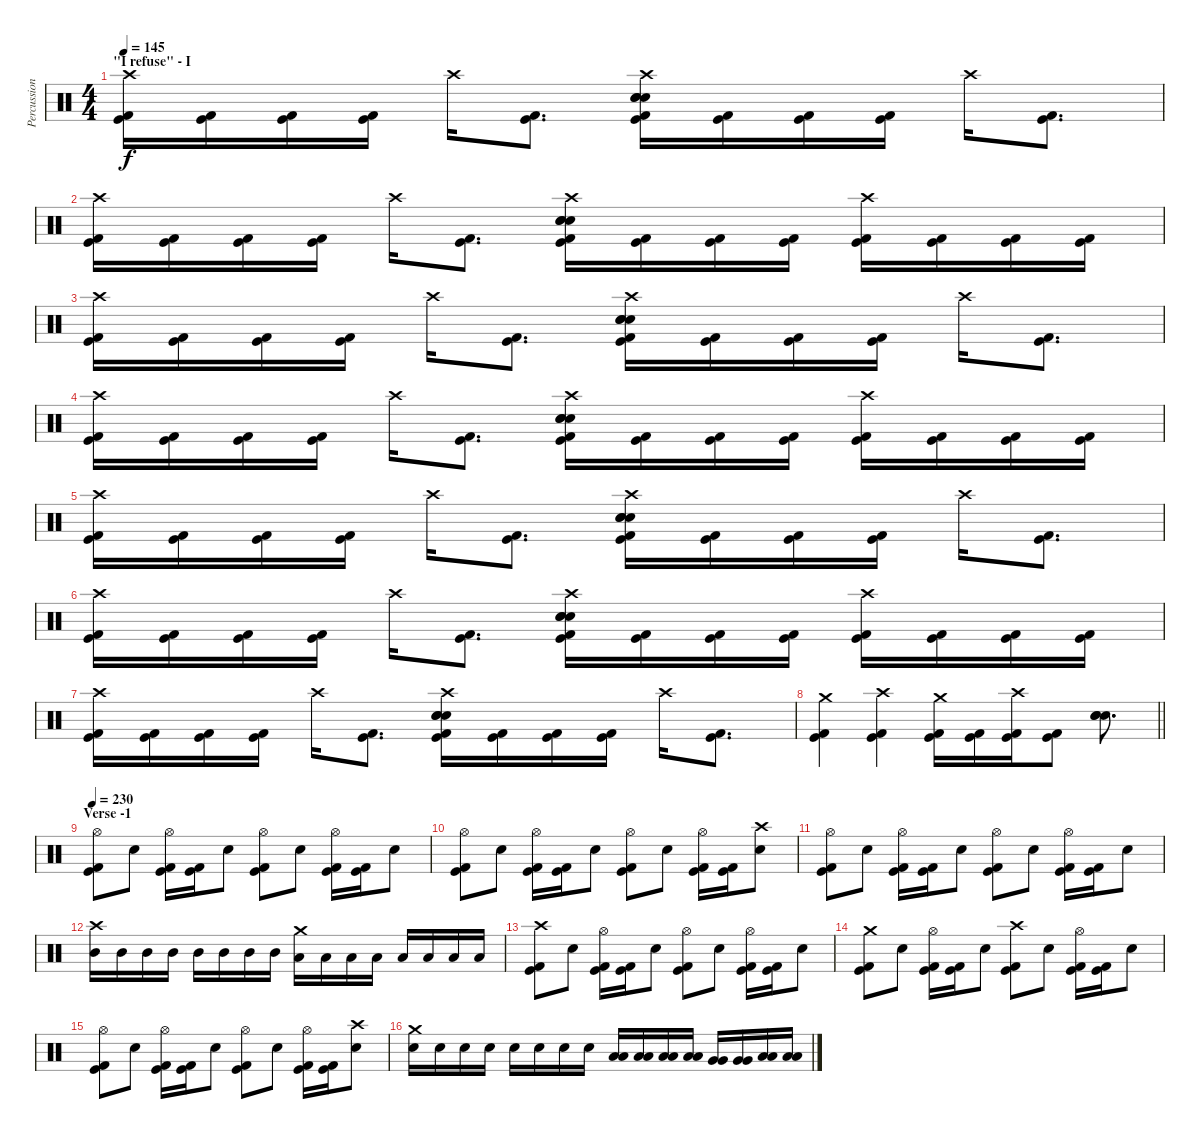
\track ("Percussion" "Percussion") {instrument percussion}
\staff {score}
\articulation defaults
\ts (4 4)
\section ("" "\"I refuse\" - I")
\tempo 145
\clef neutral
\ks c
("Crash high (hit)" "Kick (hit)" "Kick (hit) 2").16{dy f} ("Kick (hit)" "Kick (hit) 2").16 ("Kick (hit)" "Kick (hit) 2").16 ("Kick (hit)" "Kick (hit) 2").16 "Crash high (hit)".16 ("Kick (hit)" "Kick (hit) 2").8{d} ("Crash high (hit)" "Electric Snare (hit)" "Snare (hit) 2" "Snare (hit) 2" "Kick (hit)" "Kick (hit) 2").16 ("Kick (hit)" "Kick (hit) 2").16 ("Kick (hit)" "Kick (hit) 2").16 ("Kick (hit)" "Kick (hit) 2").16 "Crash high (hit)".16 ("Kick (hit)" "Kick (hit) 2").8{d} |
("Crash high (hit)" "Kick (hit)" "Kick (hit) 2").16 ("Kick (hit)" "Kick (hit) 2").16 ("Kick (hit)" "Kick (hit) 2").16 ("Kick (hit)" "Kick (hit) 2").16 "Crash high (hit)".16 ("Kick (hit)" "Kick (hit) 2").8{d} ("Crash high (hit)" "Electric Snare (hit)" "Snare (hit) 2" "Snare (hit) 2" "Kick (hit)" "Kick (hit) 2").16 ("Kick (hit)" "Kick (hit) 2").16 ("Kick (hit)" "Kick (hit) 2").16 ("Kick (hit)" "Kick (hit) 2").16 ("Crash high (hit)" "Kick (hit)" "Kick (hit) 2").16 ("Kick (hit)" "Kick (hit) 2").16 ("Kick (hit)" "Kick (hit) 2").16 ("Kick (hit)" "Kick (hit) 2").16 |
("Crash high (hit)" "Kick (hit)" "Kick (hit) 2").16 ("Kick (hit)" "Kick (hit) 2").16 ("Kick (hit)" "Kick (hit) 2").16 ("Kick (hit)" "Kick (hit) 2").16 "Crash high (hit)".16 ("Kick (hit)" "Kick (hit) 2").8{d} ("Crash high (hit)" "Electric Snare (hit)" "Snare (hit) 2" "Snare (hit) 2" "Kick (hit)" "Kick (hit) 2").16 ("Kick (hit)" "Kick (hit) 2").16 ("Kick (hit)" "Kick (hit) 2").16 ("Kick (hit)" "Kick (hit) 2").16 "Crash high (hit)".16 ("Kick (hit)" "Kick (hit) 2").8{d} |
("Crash high (hit)" "Kick (hit)" "Kick (hit) 2").16 ("Kick (hit)" "Kick (hit) 2").16 ("Kick (hit)" "Kick (hit) 2").16 ("Kick (hit)" "Kick (hit) 2").16 "Crash high (hit)".16 ("Kick (hit)" "Kick (hit) 2").8{d} ("Crash high (hit)" "Electric Snare (hit)" "Snare (hit) 2" "Snare (hit) 2" "Kick (hit)" "Kick (hit) 2").16 ("Kick (hit)" "Kick (hit) 2").16 ("Kick (hit)" "Kick (hit) 2").16 ("Kick (hit)" "Kick (hit) 2").16 ("Crash high (hit)" "Kick (hit)" "Kick (hit) 2").16 ("Kick (hit)" "Kick (hit) 2").16 ("Kick (hit)" "Kick (hit) 2").16 ("Kick (hit)" "Kick (hit) 2").16 |
("Crash high (hit)" "Kick (hit)" "Kick (hit) 2").16 ("Kick (hit)" "Kick (hit) 2").16 ("Kick (hit)" "Kick (hit) 2").16 ("Kick (hit)" "Kick (hit) 2").16 "Crash high (hit)".16 ("Kick (hit)" "Kick (hit) 2").8{d} ("Crash high (hit)" "Electric Snare (hit)" "Snare (hit) 2" "Snare (hit) 2" "Kick (hit)" "Kick (hit) 2").16 ("Kick (hit)" "Kick (hit) 2").16 ("Kick (hit)" "Kick (hit) 2").16 ("Kick (hit)" "Kick (hit) 2").16 "Crash high (hit)".16 ("Kick (hit)" "Kick (hit) 2").8{d} |
("Crash high (hit)" "Kick (hit)" "Kick (hit) 2").16 ("Kick (hit)" "Kick (hit) 2").16 ("Kick (hit)" "Kick (hit) 2").16 ("Kick (hit)" "Kick (hit) 2").16 "Crash high (hit)".16 ("Kick (hit)" "Kick (hit) 2").8{d} ("Crash high (hit)" "Electric Snare (hit)" "Snare (hit) 2" "Snare (hit) 2" "Kick (hit)" "Kick (hit) 2").16 ("Kick (hit)" "Kick (hit) 2").16 ("Kick (hit)" "Kick (hit) 2").16 ("Kick (hit)" "Kick (hit) 2").16 ("Crash high (hit)" "Kick (hit)" "Kick (hit) 2").16 ("Kick (hit)" "Kick (hit) 2").16 ("Kick (hit)" "Kick (hit) 2").16 ("Kick (hit)" "Kick (hit) 2").16 |
("Crash high (hit)" "Kick (hit)" "Kick (hit) 2").16 ("Kick (hit)" "Kick (hit) 2").16 ("Kick (hit)" "Kick (hit) 2").16 ("Kick (hit)" "Kick (hit) 2").16 "Crash high (hit)".16 ("Kick (hit)" "Kick (hit) 2").8{d} ("Crash high (hit)" "Electric Snare (hit)" "Snare (hit) 2" "Snare (hit) 2" "Kick (hit)" "Kick (hit) 2").16 ("Kick (hit)" "Kick (hit) 2").16 ("Kick (hit)" "Kick (hit) 2").16 ("Kick (hit)" "Kick (hit) 2").16 "Crash high (hit)".16 ("Kick (hit)" "Kick (hit) 2").8{d} |
\barLineRight lightlight
("Crash medium (hit)" "Kick (hit)" "Kick (hit) 2").4 ("Crash high (hit)" "Kick (hit)" "Kick (hit) 2").4 ("Crash medium (hit)" "Kick (hit)" "Kick (hit) 2").16 ("Kick (hit)" "Kick (hit) 2").16 ("Crash high (hit)" "Kick (hit)" "Kick (hit) 2").16 ("Kick (hit)" "Kick (hit) 2").8 ("Electric Snare (hit)" "Electric Snare (hit)" "Snare (hit) 2").8{d} |
\section ("" "Verse -1")
\tempo 230
("Hi-Hat (open)" "Kick (hit)" "Kick (hit) 2").8 "Electric Snare (hit)".8 ("Hi-Hat (open)" "Kick (hit)" "Kick (hit) 2").16 ("Kick (hit)" "Kick (hit) 2").16 "Electric Snare (hit)".8 ("Hi-Hat (open)" "Kick (hit)" "Kick (hit) 2").8 "Electric Snare (hit)".8 ("Hi-Hat (open)" "Kick (hit)" "Kick (hit) 2").16 ("Kick (hit)" "Kick (hit) 2").16 "Electric Snare (hit)".8 |
("Hi-Hat (open)" "Kick (hit)" "Kick (hit) 2").8 "Electric Snare (hit)".8 ("Hi-Hat (open)" "Kick (hit)" "Kick (hit) 2").16 ("Kick (hit)" "Kick (hit) 2").16 "Electric Snare (hit)".8 ("Hi-Hat (open)" "Kick (hit)" "Kick (hit) 2").8 "Electric Snare (hit)".8 ("Hi-Hat (open)" "Kick (hit)" "Kick (hit) 2").16 ("Kick (hit)" "Kick (hit) 2").16 ("Crash high (hit)" "Electric Snare (hit)").8 |
("Hi-Hat (open)" "Kick (hit)" "Kick (hit) 2").8 "Electric Snare (hit)".8 ("Hi-Hat (open)" "Kick (hit)" "Kick (hit) 2").16 ("Kick (hit)" "Kick (hit) 2").16 "Electric Snare (hit)".8 ("Hi-Hat (open)" "Kick (hit)" "Kick (hit) 2").8 "Electric Snare (hit)".8 ("Hi-Hat (open)" "Kick (hit)" "Kick (hit) 2").16 ("Kick (hit)" "Kick (hit) 2").16 "Electric Snare (hit)".8 |
("Crash high (hit)" "Mid Tom (hit)").16 "Mid Tom (hit)".16 "Mid Tom (hit)".16 "Mid Tom (hit)".16 "Mid Tom (hit)".16 "Mid Tom (hit)".16 "Mid Tom (hit)".16 "Mid Tom (hit)".16 ("Crash medium (hit)" "Low Tom (hit)").16 "Low Tom (hit)".16 "Low Tom (hit)".16 "Low Tom (hit)".16 "Low Tom (hit)".16 "Low Tom (hit)".16 "Low Tom (hit)".16 "Low Tom (hit)".16 |
("Crash high (hit)" "Kick (hit)" "Kick (hit) 2").8 "Electric Snare (hit)".8 ("Hi-Hat (open)" "Kick (hit)" "Kick (hit) 2").16 ("Kick (hit)" "Kick (hit) 2").16 "Electric Snare (hit)".8 ("Hi-Hat (open)" "Kick (hit)" "Kick (hit) 2").8 "Electric Snare (hit)".8 ("Hi-Hat (open)" "Kick (hit)" "Kick (hit) 2").16 ("Kick (hit)" "Kick (hit) 2").16 "Electric Snare (hit)".8 |
("Crash medium (hit)" "Kick (hit)" "Kick (hit) 2").8 "Electric Snare (hit)".8 ("Hi-Hat (open)" "Kick (hit)" "Kick (hit) 2").16 ("Kick (hit)" "Kick (hit) 2").16 "Electric Snare (hit)".8 ("Crash high (hit)" "Kick (hit)" "Kick (hit) 2").8 "Electric Snare (hit)".8 ("Hi-Hat (open)" "Kick (hit)" "Kick (hit) 2").16 ("Kick (hit)" "Kick (hit) 2").16 "Electric Snare (hit)".8 |
("Hi-Hat (open)" "Kick (hit)" "Kick (hit) 2").8 "Electric Snare (hit)".8 ("Hi-Hat (open)" "Kick (hit)" "Kick (hit) 2").16 ("Kick (hit)" "Kick (hit) 2").16 "Electric Snare (hit)".8 ("Hi-Hat (open)" "Kick (hit)" "Kick (hit) 2").8 "Electric Snare (hit)".8 ("Hi-Hat (open)" "Kick (hit)" "Kick (hit) 2").16 ("Kick (hit)" "Kick (hit) 2").16 ("Crash high (hit)" "Electric Snare (hit)").8 |
("Crash medium (hit)" "Electric Snare (hit)").16 "Electric Snare (hit)".16 "Electric Snare (hit)".16 "Electric Snare (hit)".16 "Electric Snare (hit)".16 "Electric Snare (hit)".16 "Electric Snare (hit)".16 "Electric Snare (hit)".16 ("Low Tom (hit)" "Low Tom (hit)").16 ("Low Tom (hit)" "Low Tom (hit)").16 ("Low Tom (hit)" "Low Tom (hit)").16 ("Low Tom (hit)" "Low Tom (hit)").16 ("Very Low Tom (hit)" "Very Low Tom (hit)").16 ("Very Low Tom (hit)" "Very Low Tom (hit)").16 ("Low Floor Tom (hit)" "Low Floor Tom (hit)").16 ("Low Floor Tom (hit)" "Low Floor Tom (hit)").16
